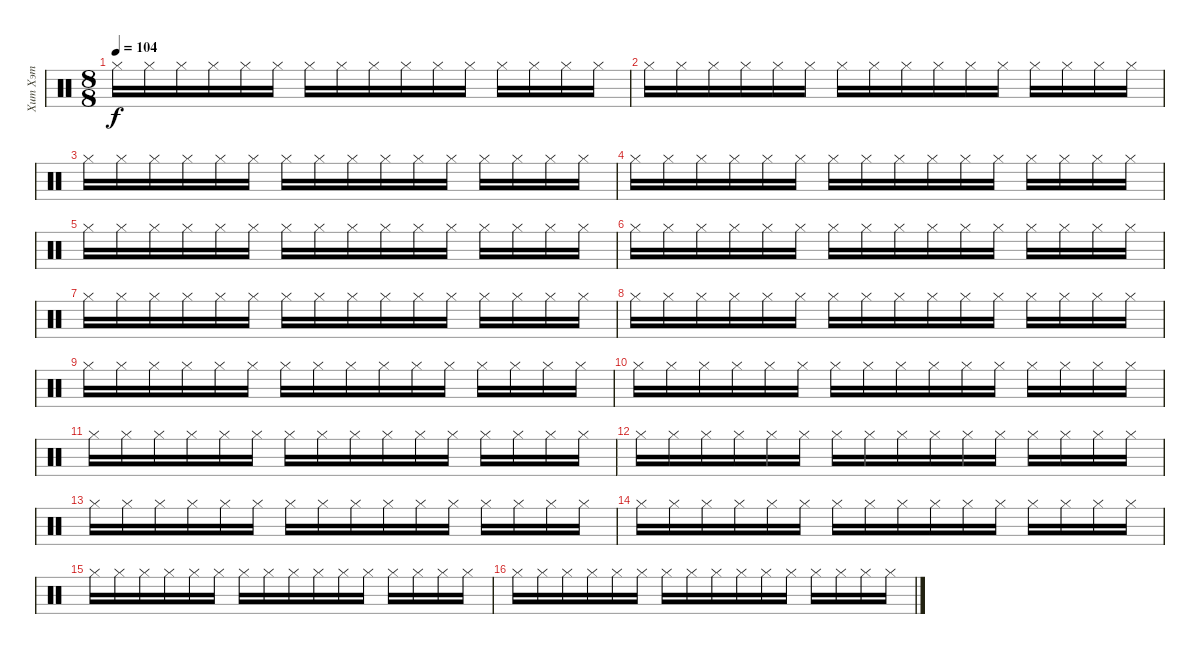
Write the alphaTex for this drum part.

\track ("Хит Хэт" "Хит Хэт") {instrument percussion}
\staff {score}
\articulation defaults
\ts (8 8)
\tempo 104
\clef neutral
\ks c "Hi-Hat (closed)".16{dy f} "Hi-Hat (closed)".16 "Hi-Hat (closed)".16 "Hi-Hat (closed)".16 "Hi-Hat (closed)".16 "Hi-Hat (closed)".16 "Hi-Hat (closed)".16 "Hi-Hat (closed)".16 "Hi-Hat (closed)".16 "Hi-Hat (closed)".16 "Hi-Hat (closed)".16 "Hi-Hat (closed)".16 "Hi-Hat (closed)".16 "Hi-Hat (closed)".16 "Hi-Hat (closed)".16 "Hi-Hat (closed)".16
|
"Hi-Hat (closed)".16 "Hi-Hat (closed)".16 "Hi-Hat (closed)".16 "Hi-Hat (closed)".16 "Hi-Hat (closed)".16 "Hi-Hat (closed)".16 "Hi-Hat (closed)".16 "Hi-Hat (closed)".16 "Hi-Hat (closed)".16 "Hi-Hat (closed)".16 "Hi-Hat (closed)".16 "Hi-Hat (closed)".16 "Hi-Hat (closed)".16 "Hi-Hat (closed)".16 "Hi-Hat (closed)".16 "Hi-Hat (closed)".16 |
"Hi-Hat (closed)".16 "Hi-Hat (closed)".16 "Hi-Hat (closed)".16 "Hi-Hat (closed)".16 "Hi-Hat (closed)".16 "Hi-Hat (closed)".16 "Hi-Hat (closed)".16 "Hi-Hat (closed)".16 "Hi-Hat (closed)".16 "Hi-Hat (closed)".16 "Hi-Hat (closed)".16 "Hi-Hat (closed)".16 "Hi-Hat (closed)".16 "Hi-Hat (closed)".16 "Hi-Hat (closed)".16 "Hi-Hat (closed)".16 |
"Hi-Hat (closed)".16 "Hi-Hat (closed)".16 "Hi-Hat (closed)".16 "Hi-Hat (closed)".16 "Hi-Hat (closed)".16 "Hi-Hat (closed)".16 "Hi-Hat (closed)".16 "Hi-Hat (closed)".16 "Hi-Hat (closed)".16 "Hi-Hat (closed)".16 "Hi-Hat (closed)".16 "Hi-Hat (closed)".16 "Hi-Hat (closed)".16 "Hi-Hat (closed)".16 "Hi-Hat (closed)".16 "Hi-Hat (closed)".16 |
"Hi-Hat (closed)".16 "Hi-Hat (closed)".16 "Hi-Hat (closed)".16 "Hi-Hat (closed)".16 "Hi-Hat (closed)".16 "Hi-Hat (closed)".16 "Hi-Hat (closed)".16 "Hi-Hat (closed)".16 "Hi-Hat (closed)".16 "Hi-Hat (closed)".16 "Hi-Hat (closed)".16 "Hi-Hat (closed)".16 "Hi-Hat (closed)".16 "Hi-Hat (closed)".16 "Hi-Hat (closed)".16 "Hi-Hat (closed)".16 |
"Hi-Hat (closed)".16 "Hi-Hat (closed)".16 "Hi-Hat (closed)".16 "Hi-Hat (closed)".16 "Hi-Hat (closed)".16 "Hi-Hat (closed)".16 "Hi-Hat (closed)".16 "Hi-Hat (closed)".16 "Hi-Hat (closed)".16 "Hi-Hat (closed)".16 "Hi-Hat (closed)".16 "Hi-Hat (closed)".16 "Hi-Hat (closed)".16 "Hi-Hat (closed)".16 "Hi-Hat (closed)".16 "Hi-Hat (closed)".16 |
"Hi-Hat (closed)".16 "Hi-Hat (closed)".16 "Hi-Hat (closed)".16 "Hi-Hat (closed)".16 "Hi-Hat (closed)".16 "Hi-Hat (closed)".16 "Hi-Hat (closed)".16 "Hi-Hat (closed)".16 "Hi-Hat (closed)".16 "Hi-Hat (closed)".16 "Hi-Hat (closed)".16 "Hi-Hat (closed)".16 "Hi-Hat (closed)".16 "Hi-Hat (closed)".16 "Hi-Hat (closed)".16 "Hi-Hat (closed)".16 |
"Hi-Hat (closed)".16 "Hi-Hat (closed)".16 "Hi-Hat (closed)".16 "Hi-Hat (closed)".16 "Hi-Hat (closed)".16 "Hi-Hat (closed)".16 "Hi-Hat (closed)".16 "Hi-Hat (closed)".16 "Hi-Hat (closed)".16 "Hi-Hat (closed)".16 "Hi-Hat (closed)".16 "Hi-Hat (closed)".16 "Hi-Hat (closed)".16 "Hi-Hat (closed)".16 "Hi-Hat (closed)".16 "Hi-Hat (closed)".16 |
"Hi-Hat (closed)".16 "Hi-Hat (closed)".16 "Hi-Hat (closed)".16 "Hi-Hat (closed)".16 "Hi-Hat (closed)".16 "Hi-Hat (closed)".16 "Hi-Hat (closed)".16 "Hi-Hat (closed)".16 "Hi-Hat (closed)".16 "Hi-Hat (closed)".16 "Hi-Hat (closed)".16 "Hi-Hat (closed)".16 "Hi-Hat (closed)".16 "Hi-Hat (closed)".16 "Hi-Hat (closed)".16 "Hi-Hat (closed)".16 |
"Hi-Hat (closed)".16 "Hi-Hat (closed)".16 "Hi-Hat (closed)".16 "Hi-Hat (closed)".16 "Hi-Hat (closed)".16 "Hi-Hat (closed)".16 "Hi-Hat (closed)".16 "Hi-Hat (closed)".16 "Hi-Hat (closed)".16 "Hi-Hat (closed)".16 "Hi-Hat (closed)".16 "Hi-Hat (closed)".16 "Hi-Hat (closed)".16 "Hi-Hat (closed)".16 "Hi-Hat (closed)".16 "Hi-Hat (closed)".16 |
"Hi-Hat (closed)".16 "Hi-Hat (closed)".16 "Hi-Hat (closed)".16 "Hi-Hat (closed)".16 "Hi-Hat (closed)".16 "Hi-Hat (closed)".16 "Hi-Hat (closed)".16 "Hi-Hat (closed)".16 "Hi-Hat (closed)".16 "Hi-Hat (closed)".16 "Hi-Hat (closed)".16 "Hi-Hat (closed)".16 "Hi-Hat (closed)".16 "Hi-Hat (closed)".16 "Hi-Hat (closed)".16 "Hi-Hat (closed)".16 |
"Hi-Hat (closed)".16 "Hi-Hat (closed)".16 "Hi-Hat (closed)".16 "Hi-Hat (closed)".16 "Hi-Hat (closed)".16 "Hi-Hat (closed)".16 "Hi-Hat (closed)".16 "Hi-Hat (closed)".16 "Hi-Hat (closed)".16 "Hi-Hat (closed)".16 "Hi-Hat (closed)".16 "Hi-Hat (closed)".16 "Hi-Hat (closed)".16 "Hi-Hat (closed)".16 "Hi-Hat (closed)".16 "Hi-Hat (closed)".16 |
"Hi-Hat (closed)".16 "Hi-Hat (closed)".16 "Hi-Hat (closed)".16 "Hi-Hat (closed)".16 "Hi-Hat (closed)".16 "Hi-Hat (closed)".16 "Hi-Hat (closed)".16 "Hi-Hat (closed)".16 "Hi-Hat (closed)".16 "Hi-Hat (closed)".16 "Hi-Hat (closed)".16 "Hi-Hat (closed)".16 "Hi-Hat (closed)".16 "Hi-Hat (closed)".16 "Hi-Hat (closed)".16 "Hi-Hat (closed)".16 |
"Hi-Hat (closed)".16 "Hi-Hat (closed)".16 "Hi-Hat (closed)".16 "Hi-Hat (closed)".16 "Hi-Hat (closed)".16 "Hi-Hat (closed)".16 "Hi-Hat (closed)".16 "Hi-Hat (closed)".16 "Hi-Hat (closed)".16 "Hi-Hat (closed)".16 "Hi-Hat (closed)".16 "Hi-Hat (closed)".16 "Hi-Hat (closed)".16 "Hi-Hat (closed)".16 "Hi-Hat (closed)".16 "Hi-Hat (closed)".16 |
"Hi-Hat (closed)".16 "Hi-Hat (closed)".16 "Hi-Hat (closed)".16 "Hi-Hat (closed)".16 "Hi-Hat (closed)".16 "Hi-Hat (closed)".16 "Hi-Hat (closed)".16 "Hi-Hat (closed)".16 "Hi-Hat (closed)".16 "Hi-Hat (closed)".16 "Hi-Hat (closed)".16 "Hi-Hat (closed)".16 "Hi-Hat (closed)".16 "Hi-Hat (closed)".16 "Hi-Hat (closed)".16 "Hi-Hat (closed)".16 |
"Hi-Hat (closed)".16 "Hi-Hat (closed)".16 "Hi-Hat (closed)".16 "Hi-Hat (closed)".16 "Hi-Hat (closed)".16 "Hi-Hat (closed)".16 "Hi-Hat (closed)".16 "Hi-Hat (closed)".16 "Hi-Hat (closed)".16 "Hi-Hat (closed)".16 "Hi-Hat (closed)".16 "Hi-Hat (closed)".16 "Hi-Hat (closed)".16 "Hi-Hat (closed)".16 "Hi-Hat (closed)".16 "Hi-Hat (closed)".16
